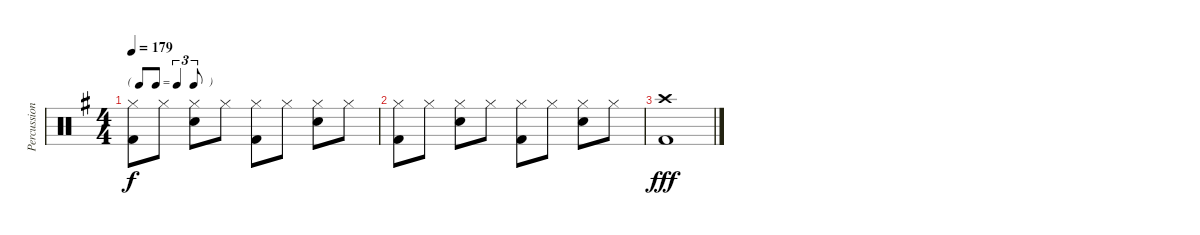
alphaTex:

\track ("Percussion" "Percussion") {instrument percussion}
\staff {score}
\articulation defaults
\ts (4 4)
\tf triplet8th
\tempo 179
\clef neutral
\ks g
("Hi-Hat (closed)" "Kick (hit) 2").8{dy f} "Hi-Hat (closed)".8 ("Hi-Hat (closed)" "Snare (hit) 2").8 "Hi-Hat (closed)".8 ("Hi-Hat (closed)" "Kick (hit) 2").8 "Hi-Hat (closed)".8 ("Hi-Hat (closed)" "Snare (hit) 2").8 "Hi-Hat (closed)".8 |
("Hi-Hat (closed)" "Kick (hit) 2").8 "Hi-Hat (closed)".8 ("Hi-Hat (closed)" "Snare (hit) 2").8 "Hi-Hat (closed)".8 ("Hi-Hat (closed)" "Kick (hit) 2").8 "Hi-Hat (closed)".8 ("Hi-Hat (closed)" "Snare (hit) 2").8 "Hi-Hat (closed)".8 |
("Crash high (hit)" "Kick (hit) 2").1{dy fff}
